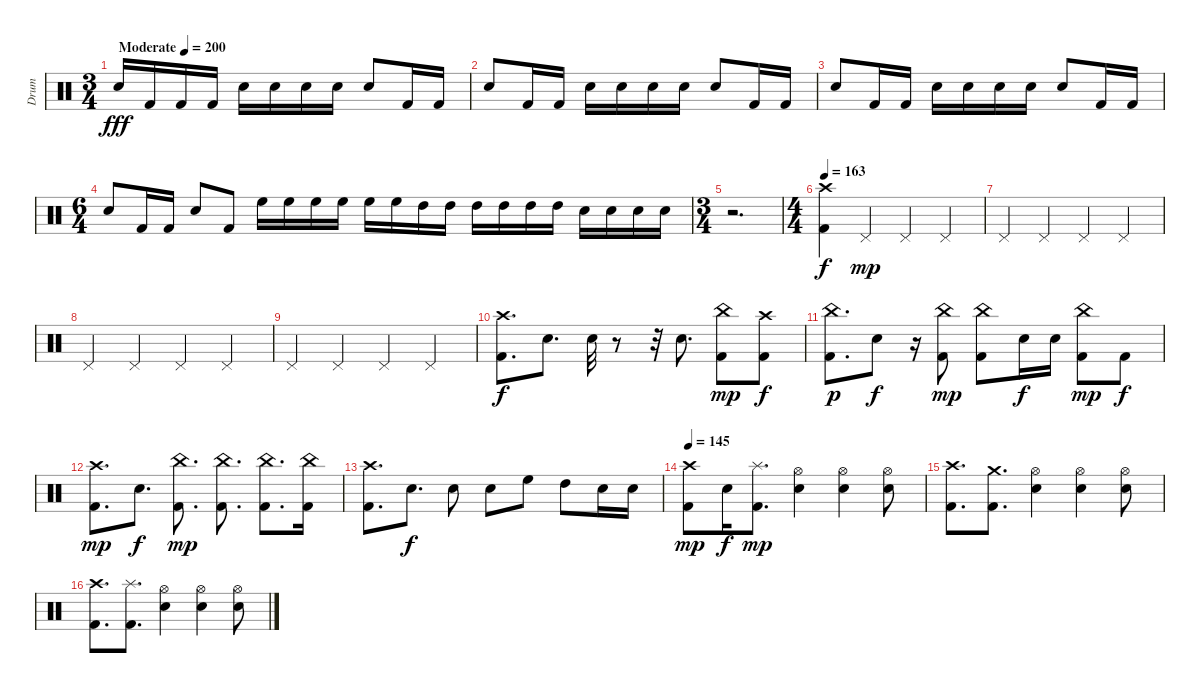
\track ("Drum" "Drum") {instrument percussion}
\staff {score}
\articulation defaults
\ts (3 4)
\tempo (200 "Moderate")
\clef neutral
\ks c "Electric Snare (hit)".16{dy fff} "Kick (hit) 2".16 "Kick (hit) 2".16 "Kick (hit) 2".16 "Electric Snare (hit)".16 "Electric Snare (hit)".16 "Electric Snare (hit)".16 "Electric Snare (hit)".16 "Electric Snare (hit)".8 "Kick (hit) 2".16 "Kick (hit) 2".16
|
"Electric Snare (hit)".8 "Kick (hit) 2".16 "Kick (hit) 2".16 "Electric Snare (hit)".16 "Electric Snare (hit)".16 "Electric Snare (hit)".16 "Electric Snare (hit)".16 "Electric Snare (hit)".8 "Kick (hit) 2".16 "Kick (hit) 2".16 |
"Electric Snare (hit)".8 "Kick (hit) 2".16 "Kick (hit) 2".16 "Electric Snare (hit)".16 "Electric Snare (hit)".16 "Electric Snare (hit)".16 "Electric Snare (hit)".16 "Electric Snare (hit)".8 "Kick (hit) 2".16 "Kick (hit) 2".16 |
\ts (6 4)
"Electric Snare (hit)".8 "Kick (hit) 2".16 "Kick (hit) 2".16 "Electric Snare (hit)".8 "Kick (hit) 2".8 "High Floor Tom (hit)".16{balance 16} "High Floor Tom (hit)".16 "High Floor Tom (hit)".16 "High Floor Tom (hit)".16 "High Floor Tom (hit)".16 "High Floor Tom (hit)".16 "High Tom (hit)".16{balance 0} "High Tom (hit)".16 "High Tom (hit)".16 "High Tom (hit)".16 "High Tom (hit)".16 "High Tom (hit)".16 "Electric Snare (hit)".16{balance 8} "Electric Snare (hit)".16 "Electric Snare (hit)".16 "Electric Snare (hit)".16 |
\ts (3 4)
r.2{d} |
\ts (4 4)
\tempo 163
("Crash high (hit)" "Kick (hit) 2").4{dy f} "Pedal Hi-Hat (hit)".4{dy mp} "Pedal Hi-Hat (hit)".4 "Pedal Hi-Hat (hit)".4 |
"Pedal Hi-Hat (hit)".4 "Pedal Hi-Hat (hit)".4 "Pedal Hi-Hat (hit)".4 "Pedal Hi-Hat (hit)".4 |
"Pedal Hi-Hat (hit)".4 "Pedal Hi-Hat (hit)".4 "Pedal Hi-Hat (hit)".4 "Pedal Hi-Hat (hit)".4 |
"Pedal Hi-Hat (hit)".4 "Pedal Hi-Hat (hit)".4 "Pedal Hi-Hat (hit)".4 "Pedal Hi-Hat (hit)".4 |
("Kick (hit) 2" "Crash high (hit)").8{d dy f} "Electric Snare (hit)".8{d} "Electric Snare (hit)".32 r.8 r.32 "Electric Snare (hit)".8{d} ("Kick (hit) 2" "China (hit)").8{dy mp} ("Kick (hit) 2" "Crash high (hit)").8{dy f} |
("China (hit)" "Kick (hit) 2").8{d dy p} "Electric Snare (hit)".8{dy f} r.16 ("Kick (hit) 2" "China (hit)").8{dy mp} ("Kick (hit) 2" "China (hit)").8 "Electric Snare (hit)".16{dy f} "Electric Snare (hit)".16 ("Kick (hit) 2" "China (hit)").8{dy mp} "Kick (hit) 2".8{dy f} |
("Crash high (hit)" "Kick (hit) 2").8{d dy mp} "Electric Snare (hit)".8{d dy f} ("Kick (hit) 2" "China (hit)").8{d dy mp} ("Kick (hit) 2" "China (hit)").8{d} ("China (hit)" "Kick (hit) 2").8{d} ("Kick (hit) 2" "China (hit)").16 |
("Kick (hit) 2" "Crash high (hit)").8{d} "Electric Snare (hit)".8{d dy f} "Electric Snare (hit)".8 "Electric Snare (hit)".8 "High Floor Tom (hit)".8 "High Tom (hit)".8 "Electric Snare (hit)".16 "Electric Snare (hit)".16 |
\tempo 145
("Crash high (hit)" "Kick (hit) 2").8{dy mp} "Electric Snare (hit)".16{dy f} ("Splash (hit)" "Kick (hit) 2").8{d dy mp} ("Hi-Hat (open)" "Electric Snare (hit)").4 ("Hi-Hat (open)" "Electric Snare (hit)").4 ("Hi-Hat (open)" "Electric Snare (hit)").8 |
("Kick (hit) 2" "Crash high (hit)").8{d} ("Kick (hit) 2" "Crash medium (hit)").8{d} ("Hi-Hat (open)" "Electric Snare (hit)").4 ("Hi-Hat (open)" "Electric Snare (hit)").4 ("Hi-Hat (open)" "Electric Snare (hit)").8 |
("Crash high (hit)" "Kick (hit) 2").8{d} ("Splash (hit)" "Kick (hit) 2").8{d} ("Hi-Hat (open)" "Electric Snare (hit)").4 ("Hi-Hat (open)" "Electric Snare (hit)").4 ("Hi-Hat (open)" "Electric Snare (hit)").8
